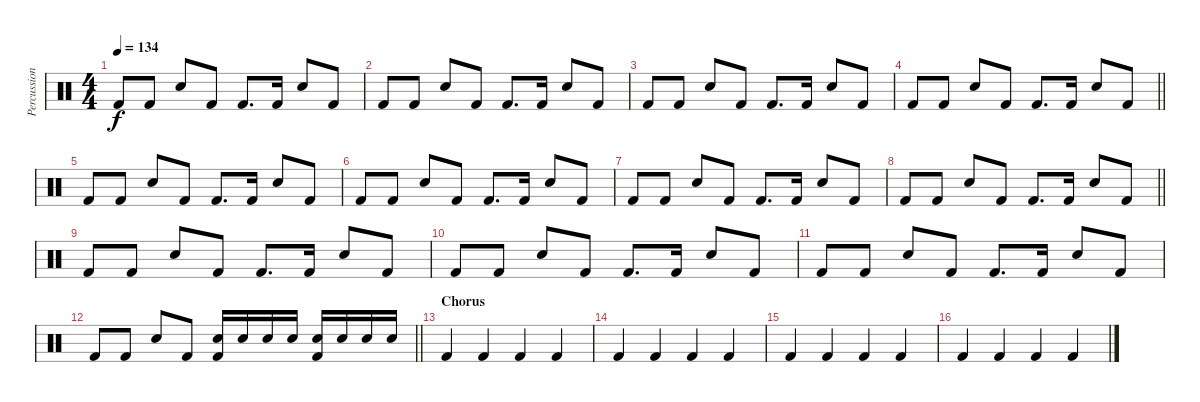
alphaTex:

\track ("Percussion" "Percussion") {instrument percussion}
\staff {score}
\articulation defaults
\ts (4 4)
\tempo 134
\clef neutral
\ks c "Kick (hit) 2".8{dy f} "Kick (hit) 2".8 "Snare (hit) 2".8 "Kick (hit) 2".8 "Kick (hit) 2".8{d} "Kick (hit) 2".16 "Snare (hit) 2".8 "Kick (hit) 2".8
|
"Kick (hit) 2".8 "Kick (hit) 2".8 "Snare (hit) 2".8 "Kick (hit) 2".8 "Kick (hit) 2".8{d} "Kick (hit) 2".16 "Snare (hit) 2".8 "Kick (hit) 2".8 |
"Kick (hit) 2".8 "Kick (hit) 2".8 "Snare (hit) 2".8 "Kick (hit) 2".8 "Kick (hit) 2".8{d} "Kick (hit) 2".16 "Snare (hit) 2".8 "Kick (hit) 2".8 |
\barLineRight lightlight "Kick (hit) 2".8 "Kick (hit) 2".8 "Snare (hit) 2".8 "Kick (hit) 2".8 "Kick (hit) 2".8{d} "Kick (hit) 2".16 "Snare (hit) 2".8 "Kick (hit) 2".8
|
"Kick (hit) 2".8 "Kick (hit) 2".8 "Snare (hit) 2".8 "Kick (hit) 2".8 "Kick (hit) 2".8{d} "Kick (hit) 2".16 "Snare (hit) 2".8 "Kick (hit) 2".8 |
"Kick (hit) 2".8 "Kick (hit) 2".8 "Snare (hit) 2".8 "Kick (hit) 2".8 "Kick (hit) 2".8{d} "Kick (hit) 2".16 "Snare (hit) 2".8 "Kick (hit) 2".8 |
"Kick (hit) 2".8 "Kick (hit) 2".8 "Snare (hit) 2".8 "Kick (hit) 2".8 "Kick (hit) 2".8{d} "Kick (hit) 2".16 "Snare (hit) 2".8 "Kick (hit) 2".8 |
\barLineRight lightlight "Kick (hit) 2".8 "Kick (hit) 2".8 "Snare (hit) 2".8 "Kick (hit) 2".8 "Kick (hit) 2".8{d} "Kick (hit) 2".16 "Snare (hit) 2".8 "Kick (hit) 2".8
|
"Kick (hit) 2".8 "Kick (hit) 2".8 "Snare (hit) 2".8 "Kick (hit) 2".8 "Kick (hit) 2".8{d} "Kick (hit) 2".16 "Snare (hit) 2".8 "Kick (hit) 2".8 |
"Kick (hit) 2".8 "Kick (hit) 2".8 "Snare (hit) 2".8 "Kick (hit) 2".8 "Kick (hit) 2".8{d} "Kick (hit) 2".16 "Snare (hit) 2".8 "Kick (hit) 2".8 |
"Kick (hit) 2".8 "Kick (hit) 2".8 "Snare (hit) 2".8 "Kick (hit) 2".8 "Kick (hit) 2".8{d} "Kick (hit) 2".16 "Snare (hit) 2".8 "Kick (hit) 2".8 |
\barLineRight lightlight "Kick (hit) 2".8 "Kick (hit) 2".8 "Snare (hit) 2".8 "Kick (hit) 2".8
("Snare (hit) 2" "Kick (hit) 2").16 "Snare (hit) 2".16 "Snare (hit) 2".16 "Snare (hit) 2".16 ("Snare (hit) 2" "Kick (hit) 2").16 "Snare (hit) 2".16 "Snare (hit) 2".16 "Snare (hit) 2".16 |
\section ("" "Chorus")
"Kick (hit) 2".4 "Kick (hit) 2".4 "Kick (hit) 2".4 "Kick (hit) 2".4 |
"Kick (hit) 2".4 "Kick (hit) 2".4 "Kick (hit) 2".4 "Kick (hit) 2".4 |
"Kick (hit) 2".4 "Kick (hit) 2".4 "Kick (hit) 2".4 "Kick (hit) 2".4 |
"Kick (hit) 2".4 "Kick (hit) 2".4 "Kick (hit) 2".4 "Kick (hit) 2".4
